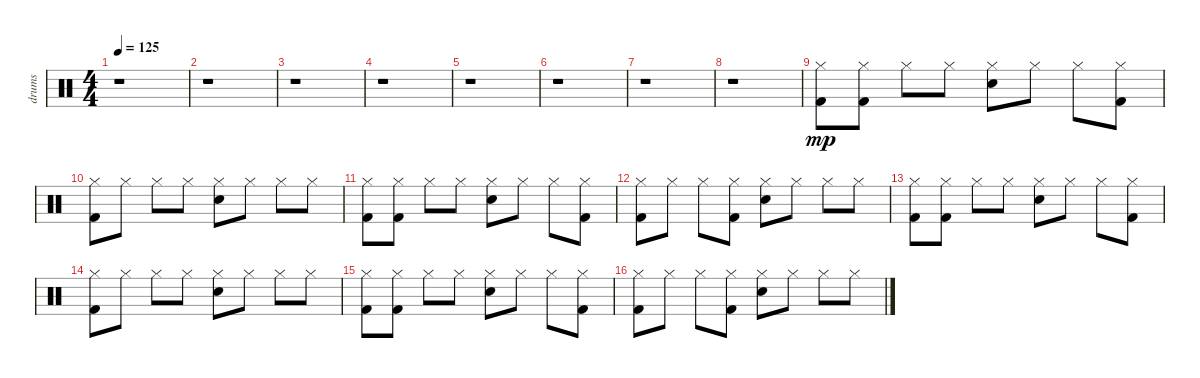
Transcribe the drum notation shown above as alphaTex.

\track ("drums" "drums") {instrument percussion}
\staff {score}
\articulation defaults
\ts (4 4)
\tempo 125
\clef neutral
\ks c
r.1{dy mp} |
r.1 |
r.1 |
r.1 |
r.1 |
r.1 |
r.1 |
r.1 |
("Hi-Hat (closed)" "Kick (hit) 2").8 ("Hi-Hat (closed)" "Kick (hit) 2").8 "Hi-Hat (closed)".8 "Hi-Hat (closed)".8 ("Hi-Hat (closed)" "Snare (hit) 2").8 "Hi-Hat (closed)".8 "Hi-Hat (closed)".8 ("Hi-Hat (closed)" "Kick (hit) 2").8 |
("Hi-Hat (closed)" "Kick (hit) 2").8 "Hi-Hat (closed)".8 "Hi-Hat (closed)".8 "Hi-Hat (closed)".8 ("Hi-Hat (closed)" "Snare (hit) 2").8 "Hi-Hat (closed)".8 "Hi-Hat (closed)".8 "Hi-Hat (closed)".8 |
("Hi-Hat (closed)" "Kick (hit) 2").8 ("Hi-Hat (closed)" "Kick (hit) 2").8 "Hi-Hat (closed)".8 "Hi-Hat (closed)".8 ("Hi-Hat (closed)" "Snare (hit) 2").8 "Hi-Hat (closed)".8 "Hi-Hat (closed)".8 ("Hi-Hat (closed)" "Kick (hit) 2").8 |
("Hi-Hat (closed)" "Kick (hit) 2").8 "Hi-Hat (closed)".8 "Hi-Hat (closed)".8 ("Hi-Hat (closed)" "Kick (hit) 2").8 ("Hi-Hat (closed)" "Snare (hit) 2").8 "Hi-Hat (closed)".8 "Hi-Hat (closed)".8 "Hi-Hat (closed)".8 |
("Hi-Hat (closed)" "Kick (hit) 2").8 ("Hi-Hat (closed)" "Kick (hit) 2").8 "Hi-Hat (closed)".8 "Hi-Hat (closed)".8 ("Hi-Hat (closed)" "Snare (hit) 2").8 "Hi-Hat (closed)".8 "Hi-Hat (closed)".8 ("Hi-Hat (closed)" "Kick (hit) 2").8 |
("Hi-Hat (closed)" "Kick (hit) 2").8 "Hi-Hat (closed)".8 "Hi-Hat (closed)".8 "Hi-Hat (closed)".8 ("Hi-Hat (closed)" "Snare (hit) 2").8 "Hi-Hat (closed)".8 "Hi-Hat (closed)".8 "Hi-Hat (closed)".8 |
("Hi-Hat (closed)" "Kick (hit) 2").8 ("Hi-Hat (closed)" "Kick (hit) 2").8 "Hi-Hat (closed)".8 "Hi-Hat (closed)".8 ("Hi-Hat (closed)" "Snare (hit) 2").8 "Hi-Hat (closed)".8 "Hi-Hat (closed)".8 ("Hi-Hat (closed)" "Kick (hit) 2").8 |
("Hi-Hat (closed)" "Kick (hit) 2").8 "Hi-Hat (closed)".8 "Hi-Hat (closed)".8 ("Hi-Hat (closed)" "Kick (hit) 2").8 ("Hi-Hat (closed)" "Snare (hit) 2").8 "Hi-Hat (closed)".8 "Hi-Hat (closed)".8 "Hi-Hat (closed)".8
